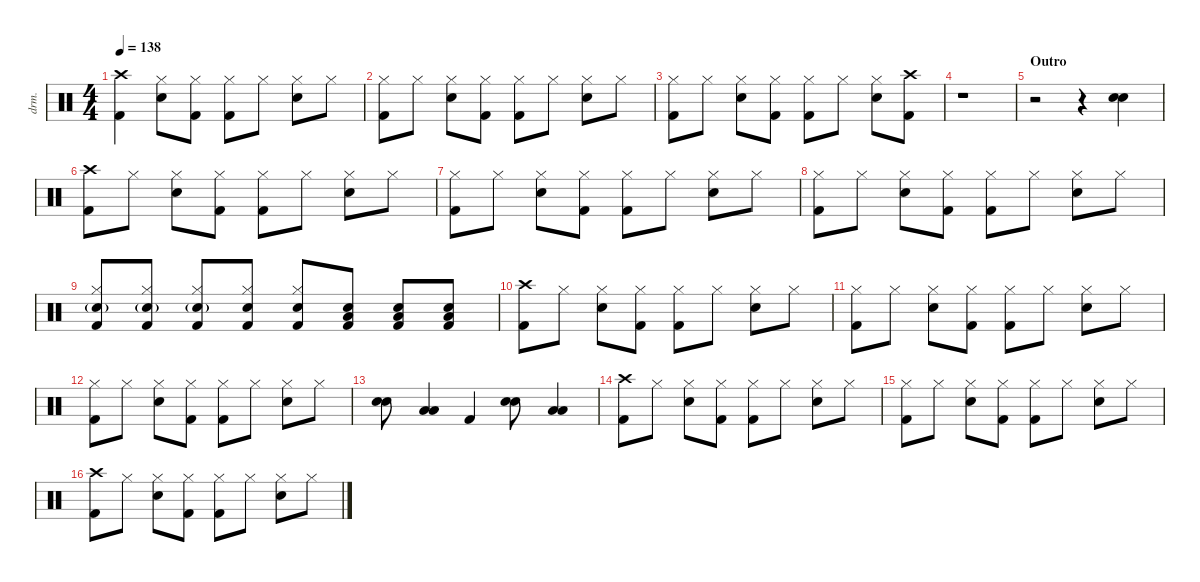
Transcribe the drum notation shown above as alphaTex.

\defaultSystemsLayout 4
\hideDynamics
\bracketExtendMode nobrackets
\otherSystemsTrackNameOrientation horizontal
\track ("Drums (Don Henley)" "drm.") {instrument percussion}
\staff {score}
\articulation defaults
\ts (4 4)
\tempo 138
\clef neutral
\ks c
("Crash high (hit)" "Kick (hit) 2").4{dy f} ("Hi-Hat (closed)" "Snare (hit) 2").8 ("Hi-Hat (closed)" "Kick (hit) 2").8 ("Hi-Hat (closed)" "Kick (hit) 2").8 "Hi-Hat (closed)".8 ("Hi-Hat (closed)" "Snare (hit) 2").8 "Hi-Hat (closed)".8 |
("Hi-Hat (closed)" "Kick (hit) 2").8 "Hi-Hat (closed)".8 ("Hi-Hat (closed)" "Snare (hit) 2").8 ("Hi-Hat (closed)" "Kick (hit) 2").8 ("Hi-Hat (closed)" "Kick (hit) 2").8 "Hi-Hat (closed)".8 ("Hi-Hat (closed)" "Snare (hit) 2").8 "Hi-Hat (closed)".8 |
("Hi-Hat (closed)" "Kick (hit) 2").8 "Hi-Hat (closed)".8 ("Hi-Hat (closed)" "Snare (hit) 2").8 ("Hi-Hat (closed)" "Kick (hit) 2").8 ("Hi-Hat (closed)" "Kick (hit) 2").8 "Hi-Hat (closed)".8 ("Hi-Hat (closed)" "Snare (hit) 2").8 ("Crash high (hit)" "Kick (hit) 2").8 |
r.1 |
\section ("" "Outro")
r.2 r.4 ("Snare (hit) 2" "Snare (hit) 2").4{dy fff} |
("Crash high (hit)" "Kick (hit) 2").8{dy f} "Hi-Hat (closed)".8 ("Hi-Hat (closed)" "Snare (hit) 2").8 ("Hi-Hat (closed)" "Kick (hit) 2").8 ("Hi-Hat (closed)" "Kick (hit) 2").8 "Hi-Hat (closed)".8 ("Hi-Hat (closed)" "Snare (hit) 2").8 "Hi-Hat (closed)".8 |
("Hi-Hat (closed)" "Kick (hit) 2").8 "Hi-Hat (closed)".8 ("Hi-Hat (closed)" "Snare (hit) 2").8 ("Hi-Hat (closed)" "Kick (hit) 2").8 ("Hi-Hat (closed)" "Kick (hit) 2").8 "Hi-Hat (closed)".8 ("Hi-Hat (closed)" "Snare (hit) 2").8 "Hi-Hat (closed)".8 |
("Hi-Hat (closed)" "Kick (hit) 2").8 "Hi-Hat (closed)".8 ("Hi-Hat (closed)" "Snare (hit) 2").8 ("Hi-Hat (closed)" "Kick (hit) 2").8 ("Hi-Hat (closed)" "Kick (hit) 2").8 "Hi-Hat (closed)".8 ("Hi-Hat (closed)" "Snare (hit) 2").8 "Hi-Hat (closed)".8 |
("Hi-Hat (closed)" "Snare (hit) 2"{g} "Kick (hit) 2").8 ("Hi-Hat (closed)" "Snare (hit) 2"{g} "Kick (hit) 2").8 ("Hi-Hat (closed)" "Snare (hit) 2"{g} "Kick (hit) 2").8 ("Hi-Hat (closed)" "Snare (hit) 2" "Kick (hit) 2").8 ("Hi-Hat (closed)" "Snare (hit) 2" "Kick (hit) 2").8 ("Snare (hit) 2" "Low Floor Tom (hit)" "Kick (hit) 2").8 ("Snare (hit) 2" "Low Floor Tom (hit)" "Kick (hit) 2").8 ("Snare (hit) 2" "Low Floor Tom (hit)" "Kick (hit) 2").8 |
("Crash high (hit)" "Kick (hit) 2").8 "Hi-Hat (closed)".8 ("Hi-Hat (closed)" "Snare (hit) 2").8 ("Hi-Hat (closed)" "Kick (hit) 2").8 ("Hi-Hat (closed)" "Kick (hit) 2").8 "Hi-Hat (closed)".8 ("Hi-Hat (closed)" "Snare (hit) 2").8 "Hi-Hat (closed)".8 |
("Hi-Hat (closed)" "Kick (hit) 2").8 "Hi-Hat (closed)".8 ("Hi-Hat (closed)" "Snare (hit) 2").8 ("Hi-Hat (closed)" "Kick (hit) 2").8 ("Hi-Hat (closed)" "Kick (hit) 2").8 "Hi-Hat (closed)".8 ("Hi-Hat (closed)" "Snare (hit) 2").8 "Hi-Hat (closed)".8 |
("Hi-Hat (closed)" "Kick (hit) 2").8 "Hi-Hat (closed)".8 ("Hi-Hat (closed)" "Snare (hit) 2").8 ("Hi-Hat (closed)" "Kick (hit) 2").8 ("Hi-Hat (closed)" "Kick (hit) 2").8 "Hi-Hat (closed)".8 ("Hi-Hat (closed)" "Snare (hit) 2").8 "Hi-Hat (closed)".8 |
("Snare (hit) 2" "Snare (hit) 2").8 ("Low Floor Tom (hit)" "Low Floor Tom (hit)").4{dy fff} "Kick (hit) 2".4{dy f} ("Snare (hit) 2" "Snare (hit) 2").8 ("Low Floor Tom (hit)" "Low Floor Tom (hit)").4{dy fff} |
("Crash high (hit)" "Kick (hit) 2").8{dy f} "Hi-Hat (closed)".8 ("Hi-Hat (closed)" "Snare (hit) 2").8 ("Hi-Hat (closed)" "Kick (hit) 2").8 ("Hi-Hat (closed)" "Kick (hit) 2").8 "Hi-Hat (closed)".8 ("Hi-Hat (closed)" "Snare (hit) 2").8 "Hi-Hat (closed)".8 |
("Hi-Hat (closed)" "Kick (hit) 2").8 "Hi-Hat (closed)".8 ("Hi-Hat (closed)" "Snare (hit) 2").8 ("Hi-Hat (closed)" "Kick (hit) 2").8 ("Hi-Hat (closed)" "Kick (hit) 2").8 "Hi-Hat (closed)".8 ("Hi-Hat (closed)" "Snare (hit) 2").8 "Hi-Hat (closed)".8 |
("Crash high (hit)" "Kick (hit) 2").8 "Hi-Hat (closed)".8 ("Hi-Hat (closed)" "Snare (hit) 2").8 ("Hi-Hat (closed)" "Kick (hit) 2").8 ("Hi-Hat (closed)" "Kick (hit) 2").8 "Hi-Hat (closed)".8 ("Hi-Hat (closed)" "Snare (hit) 2").8 "Hi-Hat (closed)".8
